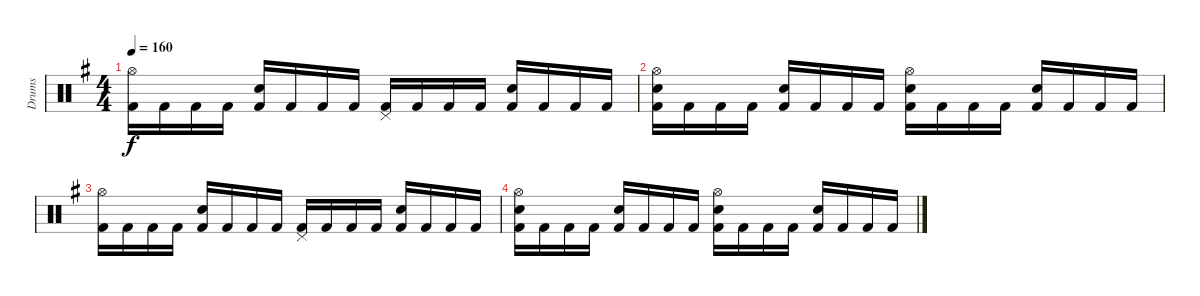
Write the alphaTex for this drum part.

\track ("Drums" "Drums") {instrument percussion}
\staff {score}
\articulation defaults
\ts (4 4)
\tempo 160
\clef neutral
\ks g
("Hi-Hat (open)" "Kick (hit) 2").16{dy f} "Kick (hit) 2".16 "Kick (hit) 2".16 "Kick (hit) 2".16 ("Snare (hit) 2" "Kick (hit) 2").16 "Kick (hit) 2".16 "Kick (hit) 2".16 "Kick (hit) 2".16 ("Pedal Hi-Hat (hit)" "Kick (hit) 2").16 "Kick (hit) 2".16 "Kick (hit) 2".16 "Kick (hit) 2".16 ("Snare (hit) 2" "Kick (hit) 2").16 "Kick (hit) 2".16 "Kick (hit) 2".16 "Kick (hit) 2".16 |
("Hi-Hat (open)" "Snare (hit) 2" "Kick (hit) 2").16 "Kick (hit) 2".16 "Kick (hit) 2".16 "Kick (hit) 2".16 ("Snare (hit) 2" "Kick (hit) 2").16 "Kick (hit) 2".16 "Kick (hit) 2".16 "Kick (hit) 2".16 ("Hi-Hat (open)" "Snare (hit) 2" "Kick (hit) 2").16 "Kick (hit) 2".16 "Kick (hit) 2".16 "Kick (hit) 2".16 ("Snare (hit) 2" "Kick (hit) 2").16 "Kick (hit) 2".16 "Kick (hit) 2".16 "Kick (hit) 2".16 |
("Hi-Hat (open)" "Kick (hit) 2").16 "Kick (hit) 2".16 "Kick (hit) 2".16 "Kick (hit) 2".16 ("Snare (hit) 2" "Kick (hit) 2").16 "Kick (hit) 2".16 "Kick (hit) 2".16 "Kick (hit) 2".16 ("Pedal Hi-Hat (hit)" "Kick (hit) 2").16 "Kick (hit) 2".16 "Kick (hit) 2".16 "Kick (hit) 2".16 ("Snare (hit) 2" "Kick (hit) 2").16 "Kick (hit) 2".16 "Kick (hit) 2".16 "Kick (hit) 2".16 |
("Hi-Hat (open)" "Snare (hit) 2" "Kick (hit) 2").16 "Kick (hit) 2".16 "Kick (hit) 2".16 "Kick (hit) 2".16 ("Snare (hit) 2" "Kick (hit) 2").16 "Kick (hit) 2".16 "Kick (hit) 2".16 "Kick (hit) 2".16 ("Hi-Hat (open)" "Snare (hit) 2" "Kick (hit) 2").16 "Kick (hit) 2".16 "Kick (hit) 2".16 "Kick (hit) 2".16 ("Snare (hit) 2" "Kick (hit) 2").16 "Kick (hit) 2".16 "Kick (hit) 2".16 "Kick (hit) 2".16
